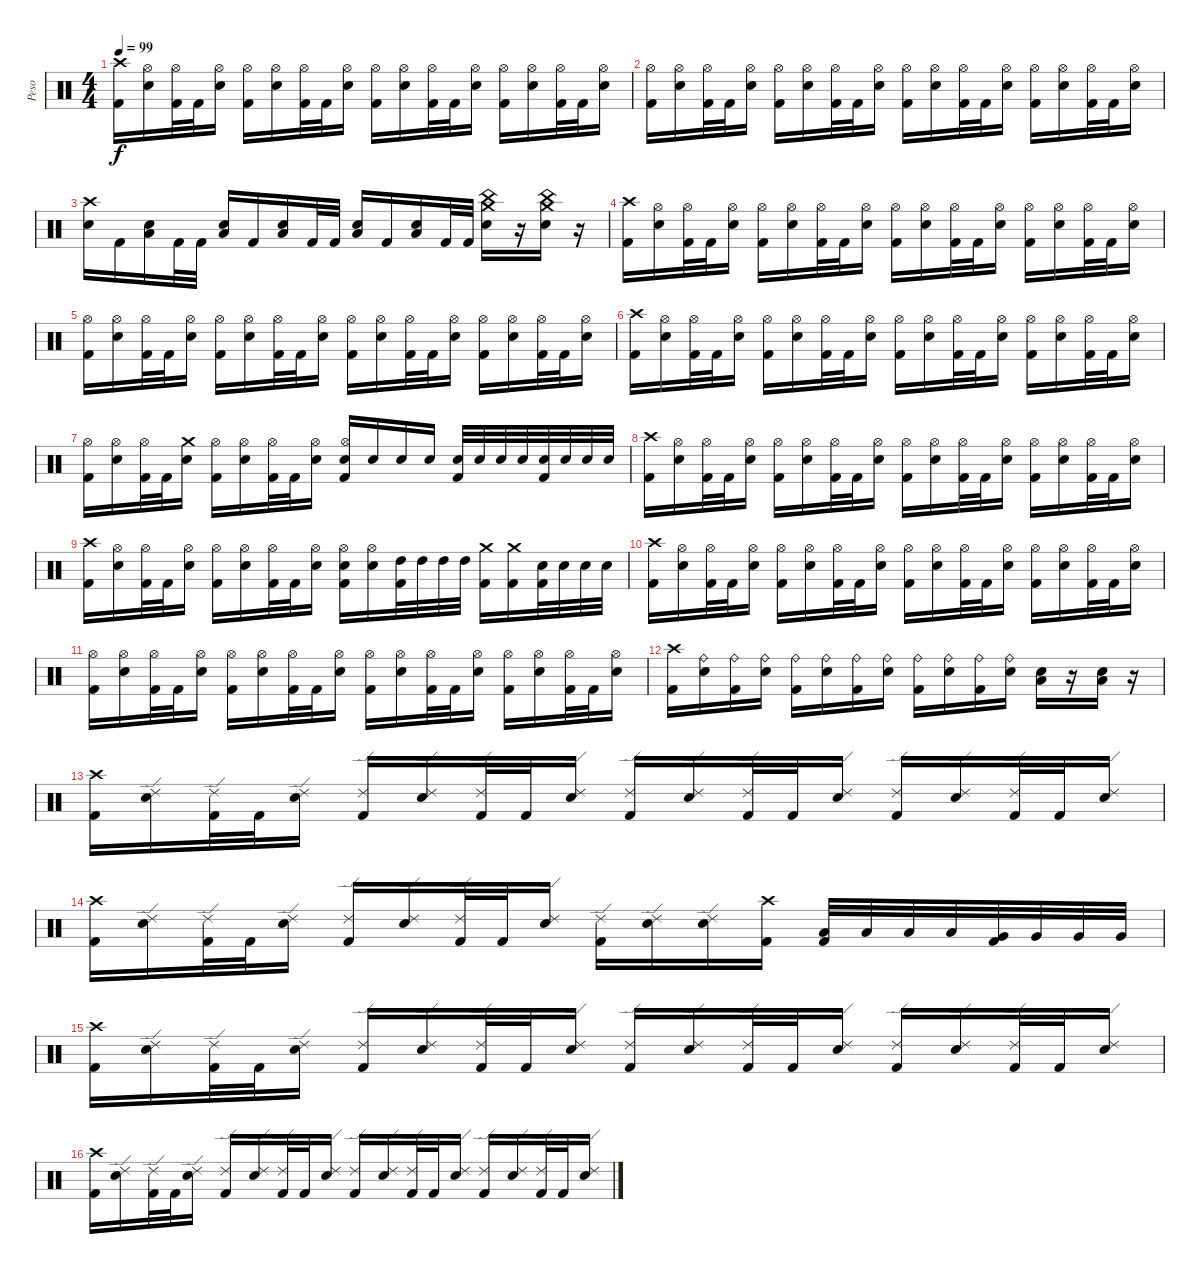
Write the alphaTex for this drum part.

\track ("Peso" "Peso") {instrument percussion}
\staff {score}
\articulation defaults
\ts (4 4)
\tempo 99
\clef neutral
\ks c
("Crash high (hit)" "Kick (hit) 2").16{dy f} ("Hi-Hat (open)" "Electric Snare (hit)").16 ("Hi-Hat (open)" "Kick (hit) 2").32 "Kick (hit) 2".32 ("Hi-Hat (open)" "Electric Snare (hit)").16 ("Hi-Hat (open)" "Kick (hit) 2").16 ("Hi-Hat (open)" "Electric Snare (hit)").16 ("Hi-Hat (open)" "Kick (hit) 2").32 "Kick (hit) 2".32 ("Hi-Hat (open)" "Electric Snare (hit)").16 ("Hi-Hat (open)" "Kick (hit) 2").16 ("Hi-Hat (open)" "Electric Snare (hit)").16 ("Hi-Hat (open)" "Kick (hit) 2").32 "Kick (hit) 2".32 ("Hi-Hat (open)" "Electric Snare (hit)").16 ("Hi-Hat (open)" "Kick (hit) 2").16 ("Hi-Hat (open)" "Electric Snare (hit)").16 ("Hi-Hat (open)" "Kick (hit) 2").32 "Kick (hit) 2".32 ("Hi-Hat (open)" "Electric Snare (hit)").16 |
("Hi-Hat (open)" "Kick (hit) 2").16 ("Hi-Hat (open)" "Electric Snare (hit)").16 ("Hi-Hat (open)" "Kick (hit) 2").32 "Kick (hit) 2".32 ("Hi-Hat (open)" "Electric Snare (hit)").16 ("Hi-Hat (open)" "Kick (hit) 2").16 ("Hi-Hat (open)" "Electric Snare (hit)").16 ("Hi-Hat (open)" "Kick (hit) 2").32 "Kick (hit) 2".32 ("Hi-Hat (open)" "Electric Snare (hit)").16 ("Hi-Hat (open)" "Kick (hit) 2").16 ("Hi-Hat (open)" "Electric Snare (hit)").16 ("Hi-Hat (open)" "Kick (hit) 2").32 "Kick (hit) 2".32 ("Hi-Hat (open)" "Electric Snare (hit)").16 ("Hi-Hat (open)" "Kick (hit) 2").16 ("Hi-Hat (open)" "Electric Snare (hit)").16 ("Hi-Hat (open)" "Kick (hit) 2").32 "Kick (hit) 2".32 ("Hi-Hat (open)" "Electric Snare (hit)").16 |
("Crash high (hit)" "Electric Snare (hit)").16 "Kick (hit) 2".16 ("Low Floor Tom (hit)" "Electric Snare (hit)").16 "Kick (hit) 2".32 "Kick (hit) 2".32 ("Low Floor Tom (hit)" "Electric Snare (hit)").16 "Kick (hit) 2".16 ("Low Floor Tom (hit)" "Electric Snare (hit)").16 "Kick (hit) 2".32 "Kick (hit) 2".32 ("Low Floor Tom (hit)" "Electric Snare (hit)").16 "Kick (hit) 2".16 ("Low Floor Tom (hit)" "Electric Snare (hit)").16 "Kick (hit) 2".32 "Kick (hit) 2".32 ("Crash medium (hit)" "China (hit)" "Electric Snare (hit)").16 r.16 ("Crash medium (hit)" "China (hit)" "Electric Snare (hit)").16 r.16 |
("Crash high (hit)" "Kick (hit) 2").16 ("Hi-Hat (open)" "Electric Snare (hit)").16 ("Hi-Hat (open)" "Kick (hit) 2").32 "Kick (hit) 2".32 ("Hi-Hat (open)" "Electric Snare (hit)").16 ("Hi-Hat (open)" "Kick (hit) 2").16 ("Hi-Hat (open)" "Electric Snare (hit)").16 ("Hi-Hat (open)" "Kick (hit) 2").32 "Kick (hit) 2".32 ("Hi-Hat (open)" "Electric Snare (hit)").16 ("Hi-Hat (open)" "Kick (hit) 2").16 ("Hi-Hat (open)" "Electric Snare (hit)").16 ("Hi-Hat (open)" "Kick (hit) 2").32 "Kick (hit) 2".32 ("Hi-Hat (open)" "Electric Snare (hit)").16 ("Hi-Hat (open)" "Kick (hit) 2").16 ("Hi-Hat (open)" "Electric Snare (hit)").16 ("Hi-Hat (open)" "Kick (hit) 2").32 "Kick (hit) 2".32 ("Hi-Hat (open)" "Electric Snare (hit)").16 |
("Hi-Hat (open)" "Kick (hit) 2").16 ("Hi-Hat (open)" "Electric Snare (hit)").16 ("Hi-Hat (open)" "Kick (hit) 2").32 "Kick (hit) 2".32 ("Hi-Hat (open)" "Electric Snare (hit)").16 ("Hi-Hat (open)" "Kick (hit) 2").16 ("Hi-Hat (open)" "Electric Snare (hit)").16 ("Hi-Hat (open)" "Kick (hit) 2").32 "Kick (hit) 2".32 ("Hi-Hat (open)" "Electric Snare (hit)").16 ("Hi-Hat (open)" "Kick (hit) 2").16 ("Hi-Hat (open)" "Electric Snare (hit)").16 ("Hi-Hat (open)" "Kick (hit) 2").32 "Kick (hit) 2".32 ("Hi-Hat (open)" "Electric Snare (hit)").16 ("Hi-Hat (open)" "Kick (hit) 2").16 ("Hi-Hat (open)" "Electric Snare (hit)").16 ("Hi-Hat (open)" "Kick (hit) 2").32 "Kick (hit) 2".32 ("Hi-Hat (open)" "Electric Snare (hit)").16 |
("Crash high (hit)" "Kick (hit) 2").16 ("Hi-Hat (open)" "Electric Snare (hit)").16 ("Hi-Hat (open)" "Kick (hit) 2").32 "Kick (hit) 2".32 ("Hi-Hat (open)" "Electric Snare (hit)").16 ("Hi-Hat (open)" "Kick (hit) 2").16 ("Hi-Hat (open)" "Electric Snare (hit)").16 ("Hi-Hat (open)" "Kick (hit) 2").32 "Kick (hit) 2".32 ("Hi-Hat (open)" "Electric Snare (hit)").16 ("Hi-Hat (open)" "Kick (hit) 2").16 ("Hi-Hat (open)" "Electric Snare (hit)").16 ("Hi-Hat (open)" "Kick (hit) 2").32 "Kick (hit) 2".32 ("Hi-Hat (open)" "Electric Snare (hit)").16 ("Hi-Hat (open)" "Kick (hit) 2").16 ("Hi-Hat (open)" "Electric Snare (hit)").16 ("Hi-Hat (open)" "Kick (hit) 2").32 "Kick (hit) 2".32 ("Hi-Hat (open)" "Electric Snare (hit)").16 |
("Hi-Hat (open)" "Kick (hit) 2").16 ("Hi-Hat (open)" "Electric Snare (hit)").16 ("Hi-Hat (open)" "Kick (hit) 2").32 "Kick (hit) 2".32 ("Crash medium (hit)" "Electric Snare (hit)").16 ("Hi-Hat (open)" "Kick (hit) 2").16 ("Hi-Hat (open)" "Electric Snare (hit)").16 ("Hi-Hat (open)" "Kick (hit) 2").32 "Kick (hit) 2".32 ("Hi-Hat (open)" "Electric Snare (hit)").16 ("Hi-Hat (open)" "Electric Snare (hit)" "Kick (hit) 2").16 "Electric Snare (hit)".16 "Electric Snare (hit)".16 "Electric Snare (hit)".16 ("Electric Snare (hit)" "Kick (hit) 2").32 "Electric Snare (hit)".32 "Electric Snare (hit)".32 "Electric Snare (hit)".32 ("Electric Snare (hit)" "Kick (hit) 2").32 "Electric Snare (hit)".32 "Electric Snare (hit)".32 "Electric Snare (hit)".32 |
("Crash high (hit)" "Kick (hit) 2").16 ("Hi-Hat (open)" "Electric Snare (hit)").16 ("Hi-Hat (open)" "Kick (hit) 2").32 "Kick (hit) 2".32 ("Hi-Hat (open)" "Electric Snare (hit)").16 ("Hi-Hat (open)" "Kick (hit) 2").16 ("Hi-Hat (open)" "Electric Snare (hit)").16 ("Hi-Hat (open)" "Kick (hit) 2").32 "Kick (hit) 2".32 ("Hi-Hat (open)" "Electric Snare (hit)").16 ("Hi-Hat (open)" "Kick (hit) 2").16 ("Hi-Hat (open)" "Electric Snare (hit)").16 ("Hi-Hat (open)" "Kick (hit) 2").32 "Kick (hit) 2".32 ("Hi-Hat (open)" "Electric Snare (hit)").16 ("Hi-Hat (open)" "Kick (hit) 2").16 ("Hi-Hat (open)" "Electric Snare (hit)").16 ("Hi-Hat (open)" "Kick (hit) 2").32 "Kick (hit) 2".32 ("Hi-Hat (open)" "Electric Snare (hit)").16 |
("Crash high (hit)" "Kick (hit) 2").16 ("Hi-Hat (open)" "Electric Snare (hit)").16 ("Hi-Hat (open)" "Kick (hit) 2").32 "Kick (hit) 2".32 ("Hi-Hat (open)" "Electric Snare (hit)").16 ("Hi-Hat (open)" "Kick (hit) 2").16 ("Hi-Hat (open)" "Electric Snare (hit)").16 ("Hi-Hat (open)" "Kick (hit) 2").32 "Kick (hit) 2".32 ("Hi-Hat (open)" "Electric Snare (hit)").16 ("Hi-Hat (open)" "Electric Snare (hit)" "Kick (hit) 2").16 ("Hi-Hat (open)" "Electric Snare (hit)").16 ("High Tom (hit)" "Kick (hit) 2").32 "High Tom (hit)".32 "High Tom (hit)".32 "High Tom (hit)".32 ("Crash medium (hit)" "Kick (hit) 2").16 ("Crash medium (hit)" "Kick (hit) 2").16 ("Electric Snare (hit)" "Kick (hit) 2").32 "Electric Snare (hit)".32 "Electric Snare (hit)".32 "Electric Snare (hit)".32 |
("Crash high (hit)" "Kick (hit) 2").16 ("Hi-Hat (open)" "Electric Snare (hit)").16 ("Hi-Hat (open)" "Kick (hit) 2").32 "Kick (hit) 2".32 ("Hi-Hat (open)" "Electric Snare (hit)").16 ("Hi-Hat (open)" "Kick (hit) 2").16 ("Hi-Hat (open)" "Electric Snare (hit)").16 ("Hi-Hat (open)" "Kick (hit) 2").32 "Kick (hit) 2".32 ("Hi-Hat (open)" "Electric Snare (hit)").16 ("Hi-Hat (open)" "Kick (hit) 2").16 ("Hi-Hat (open)" "Electric Snare (hit)").16 ("Hi-Hat (open)" "Kick (hit) 2").32 "Kick (hit) 2".32 ("Hi-Hat (open)" "Electric Snare (hit)").16 ("Hi-Hat (open)" "Kick (hit) 2").16 ("Hi-Hat (open)" "Electric Snare (hit)").16 ("Hi-Hat (open)" "Kick (hit) 2").32 "Kick (hit) 2".32 ("Hi-Hat (open)" "Electric Snare (hit)").16 |
("Hi-Hat (open)" "Kick (hit) 2").16 ("Hi-Hat (open)" "Electric Snare (hit)").16 ("Hi-Hat (open)" "Kick (hit) 2").32 "Kick (hit) 2".32 ("Hi-Hat (open)" "Electric Snare (hit)").16 ("Hi-Hat (open)" "Kick (hit) 2").16 ("Hi-Hat (open)" "Electric Snare (hit)").16 ("Hi-Hat (open)" "Kick (hit) 2").32 "Kick (hit) 2".32 ("Hi-Hat (open)" "Electric Snare (hit)").16 ("Hi-Hat (open)" "Kick (hit) 2").16 ("Hi-Hat (open)" "Electric Snare (hit)").16 ("Hi-Hat (open)" "Kick (hit) 2").32 "Kick (hit) 2".32 ("Hi-Hat (open)" "Electric Snare (hit)").16 ("Hi-Hat (open)" "Kick (hit) 2").16 ("Hi-Hat (open)" "Electric Snare (hit)").16 ("Hi-Hat (open)" "Kick (hit) 2").32 "Kick (hit) 2".32 ("Hi-Hat (open)" "Electric Snare (hit)").16 |
("Crash high (hit)" "Kick (hit) 2").16 ("Ride (bell)" "Electric Snare (hit)").16 ("Ride (bell)" "Kick (hit) 2").16 ("Ride (bell)" "Electric Snare (hit)").16 ("Ride (bell)" "Kick (hit) 2").16 ("Ride (bell)" "Electric Snare (hit)").16 ("Ride (bell)" "Kick (hit) 2").16 ("Ride (bell)" "Electric Snare (hit)").16 ("Ride (bell)" "Kick (hit) 2").16 ("Ride (bell)" "Electric Snare (hit)").16 ("Ride (bell)" "Kick (hit) 2").16 ("Ride (bell)" "Electric Snare (hit)").16 ("Low Floor Tom (hit)" "Electric Snare (hit)").16 r.16 ("Low Floor Tom (hit)" "Electric Snare (hit)").16 r.16 |
("Crash high (hit)" "Kick (hit) 2").16 ("Ride (edge) 2" "Electric Snare (hit)").16 ("Ride (edge) 2" "Kick (hit) 2").32 "Kick (hit) 2".32 ("Ride (edge) 2" "Electric Snare (hit)").16 ("Ride (edge) 2" "Kick (hit) 2").16 ("Ride (edge) 2" "Electric Snare (hit)").16 ("Ride (edge) 2" "Kick (hit) 2").32 "Kick (hit) 2".32 ("Ride (edge) 2" "Electric Snare (hit)").16 ("Ride (edge) 2" "Kick (hit) 2").16 ("Ride (edge) 2" "Electric Snare (hit)").16 ("Ride (edge) 2" "Kick (hit) 2").32 "Kick (hit) 2".32 ("Ride (edge) 2" "Electric Snare (hit)").16 ("Ride (edge) 2" "Kick (hit) 2").16 ("Ride (edge) 2" "Electric Snare (hit)").16 ("Ride (edge) 2" "Kick (hit) 2").32 "Kick (hit) 2".32 ("Ride (edge) 2" "Electric Snare (hit)").16 |
("Crash high (hit)" "Kick (hit) 2").16 ("Ride (edge) 2" "Electric Snare (hit)").16 ("Ride (edge) 2" "Kick (hit) 2").32 "Kick (hit) 2".32 ("Ride (edge) 2" "Electric Snare (hit)").16 ("Ride (edge) 2" "Kick (hit) 2").16 ("Ride (edge) 2" "Electric Snare (hit)").16 ("Ride (edge) 2" "Kick (hit) 2").32 "Kick (hit) 2".32 ("Ride (edge) 2" "Electric Snare (hit)").16 ("Ride (edge) 2" "Kick (hit) 2").16 ("Ride (edge) 2" "Electric Snare (hit)").16 ("Ride (edge) 2" "Electric Snare (hit)").16 ("Crash high (hit)" "Kick (hit) 2").16 ("Low Tom (hit)" "Kick (hit) 2").32 "Low Tom (hit)".32 "Low Tom (hit)".32 "Low Tom (hit)".32 ("Very Low Tom (hit)" "Kick (hit) 2").32 "Very Low Tom (hit)".32 "Very Low Tom (hit)".32 "Very Low Tom (hit)".32 |
("Crash high (hit)" "Kick (hit) 2").16 ("Ride (edge) 2" "Electric Snare (hit)").16 ("Ride (edge) 2" "Kick (hit) 2").32 "Kick (hit) 2".32 ("Ride (edge) 2" "Electric Snare (hit)").16 ("Ride (edge) 2" "Kick (hit) 2").16 ("Ride (edge) 2" "Electric Snare (hit)").16 ("Ride (edge) 2" "Kick (hit) 2").32 "Kick (hit) 2".32 ("Ride (edge) 2" "Electric Snare (hit)").16 ("Ride (edge) 2" "Kick (hit) 2").16 ("Ride (edge) 2" "Electric Snare (hit)").16 ("Ride (edge) 2" "Kick (hit) 2").32 "Kick (hit) 2".32 ("Ride (edge) 2" "Electric Snare (hit)").16 ("Ride (edge) 2" "Kick (hit) 2").16 ("Ride (edge) 2" "Electric Snare (hit)").16 ("Ride (edge) 2" "Kick (hit) 2").32 "Kick (hit) 2".32 ("Ride (edge) 2" "Electric Snare (hit)").16 |
("Crash high (hit)" "Kick (hit) 2").16 ("Ride (edge) 2" "Electric Snare (hit)").16 ("Ride (edge) 2" "Kick (hit) 2").32 "Kick (hit) 2".32 ("Ride (edge) 2" "Electric Snare (hit)").16 ("Ride (edge) 2" "Kick (hit) 2").16 ("Ride (edge) 2" "Electric Snare (hit)").16 ("Ride (edge) 2" "Kick (hit) 2").32 "Kick (hit) 2".32 ("Ride (edge) 2" "Electric Snare (hit)").16 ("Ride (edge) 2" "Kick (hit) 2").16 ("Ride (edge) 2" "Electric Snare (hit)").16 ("Ride (edge) 2" "Kick (hit) 2").32 "Kick (hit) 2".32 ("Ride (edge) 2" "Electric Snare (hit)").16 ("Ride (edge) 2" "Kick (hit) 2").16 ("Ride (edge) 2" "Electric Snare (hit)").16 ("Ride (edge) 2" "Kick (hit) 2").32 "Kick (hit) 2".32 ("Ride (edge) 2" "Electric Snare (hit)").16
